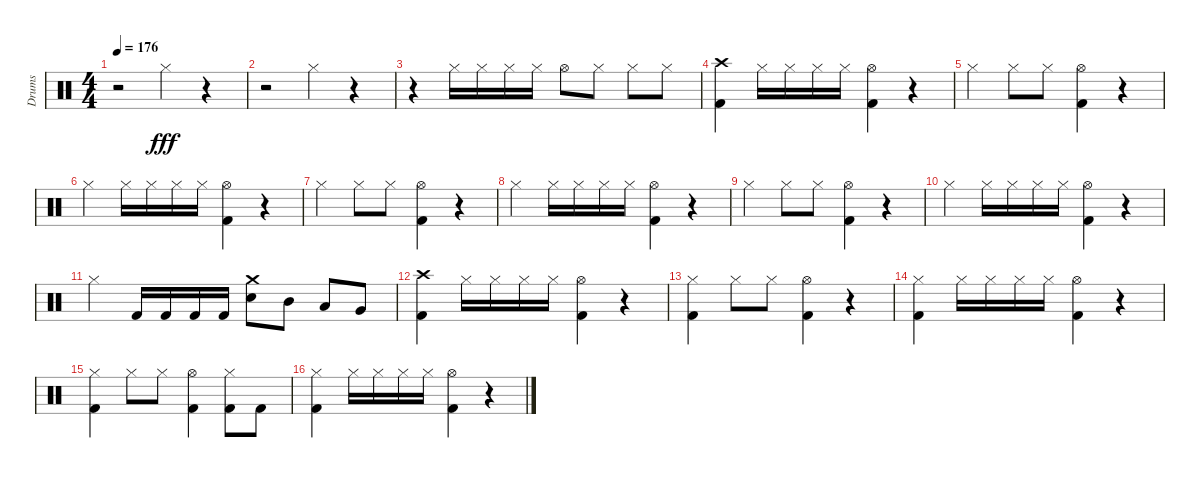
\track ("Drums" "Drums") {instrument percussion}
\staff {score}
\articulation defaults
\ts (4 4)
\tempo 176
\clef neutral
\ks aminor
r.2{dy fff} "Hi-Hat (closed)".4 r.4 |
r.2 "Hi-Hat (closed)".4 r.4 |
r.4 "Hi-Hat (closed)".16 "Hi-Hat (closed)".16 "Hi-Hat (closed)".16 "Hi-Hat (closed)".16 "Hi-Hat (open)".8 "Hi-Hat (closed)".8 "Hi-Hat (closed)".8 "Hi-Hat (closed)".8 |
("Kick (hit) 2" "Crash high (hit)").4 "Hi-Hat (closed)".16 "Hi-Hat (closed)".16 "Hi-Hat (closed)".16 "Hi-Hat (closed)".16 ("Kick (hit) 2" "Hi-Hat (open)").4 r.4 |
"Hi-Hat (closed)".4 "Hi-Hat (closed)".8 "Hi-Hat (closed)".8 ("Kick (hit) 2" "Hi-Hat (open)").4 r.4 |
"Hi-Hat (closed)".4 "Hi-Hat (closed)".16 "Hi-Hat (closed)".16 "Hi-Hat (closed)".16 "Hi-Hat (closed)".16 ("Kick (hit) 2" "Hi-Hat (open)").4 r.4 |
"Hi-Hat (closed)".4 "Hi-Hat (closed)".8 "Hi-Hat (closed)".8 ("Kick (hit) 2" "Hi-Hat (open)").4 r.4 |
"Hi-Hat (closed)".4 "Hi-Hat (closed)".16 "Hi-Hat (closed)".16 "Hi-Hat (closed)".16 "Hi-Hat (closed)".16 ("Kick (hit) 2" "Hi-Hat (open)").4 r.4 |
"Hi-Hat (closed)".4 "Hi-Hat (closed)".8 "Hi-Hat (closed)".8 ("Kick (hit) 2" "Hi-Hat (open)").4 r.4 |
"Hi-Hat (closed)".4 "Hi-Hat (closed)".16 "Hi-Hat (closed)".16 "Hi-Hat (closed)".16 "Hi-Hat (closed)".16 ("Kick (hit) 2" "Hi-Hat (open)").4 r.4 |
"Hi-Hat (closed)".4 "Kick (hit) 2".16 "Kick (hit) 2".16 "Kick (hit) 2".16 "Kick (hit) 2".16 ("Snare (hit) 2" "Crash medium (hit)").8 "Mid Tom (hit)".8 "Low Tom (hit)".8 "Very Low Tom (hit)".8 |
("Kick (hit) 2" "Crash high (hit)").4 "Hi-Hat (closed)".16 "Hi-Hat (closed)".16 "Hi-Hat (closed)".16 "Hi-Hat (closed)".16 ("Kick (hit) 2" "Hi-Hat (open)").4 r.4 |
("Kick (hit) 2" "Hi-Hat (closed)").4 "Hi-Hat (closed)".8 "Hi-Hat (closed)".8 ("Kick (hit) 2" "Hi-Hat (open)").4 r.4 |
("Kick (hit) 2" "Hi-Hat (closed)").4 "Hi-Hat (closed)".16 "Hi-Hat (closed)".16 "Hi-Hat (closed)".16 "Hi-Hat (closed)".16 ("Kick (hit) 2" "Hi-Hat (open)").4 r.4 |
("Kick (hit) 2" "Hi-Hat (closed)").4 "Hi-Hat (closed)".8 "Hi-Hat (closed)".8 ("Kick (hit) 2" "Hi-Hat (open)").4 ("Kick (hit) 2" "Hi-Hat (closed)").8 "Kick (hit) 2".8 |
("Kick (hit) 2" "Hi-Hat (closed)").4 "Hi-Hat (closed)".16 "Hi-Hat (closed)".16 "Hi-Hat (closed)".16 "Hi-Hat (closed)".16 ("Kick (hit) 2" "Hi-Hat (open)").4 r.4
